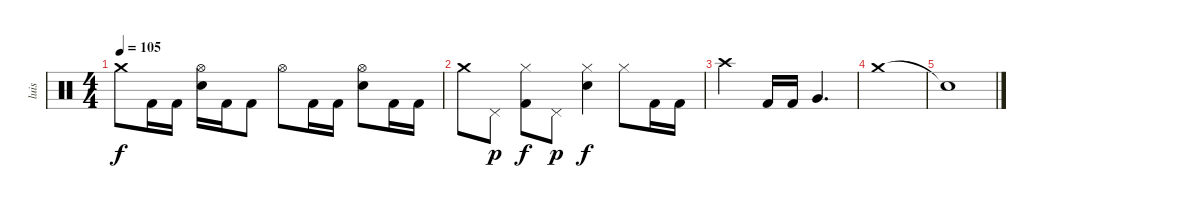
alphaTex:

\track ("luis" "luis") {instrument percussion}
\staff {score}
\articulation defaults
\ts (4 4)
\tempo 105
\clef neutral
\ks c "Crash medium (hit)".8{dy f} "Kick (hit) 2".16 "Kick (hit) 2".16
("Hi-Hat (open)" "Electric Snare (hit)").16 "Kick (hit) 2".16 "Kick (hit) 2".8 "Hi-Hat (open)".8 "Kick (hit) 2".16 "Kick (hit) 2".16 ("Hi-Hat (open)" "Electric Snare (hit)").8 "Kick (hit) 2".16 "Kick (hit) 2".16 |
"Crash medium (hit)".8 "Pedal Hi-Hat (hit)".8{dy p} ("Hi-Hat (closed)" "Kick (hit) 2").8{dy f} "Pedal Hi-Hat (hit)".8{dy p} ("Hi-Hat (closed)" "Electric Snare (hit)").4{dy f} "Hi-Hat (closed)".8 "Kick (hit) 2".16 "Kick (hit) 2".16 |
"Crash high (hit)".2 "Kick (hit) 2".16 "Kick (hit) 2".16 "Very Low Tom (hit)".4{d} |
"Crash medium (hit)".1 |
"Snare (hit)"{t}.1
